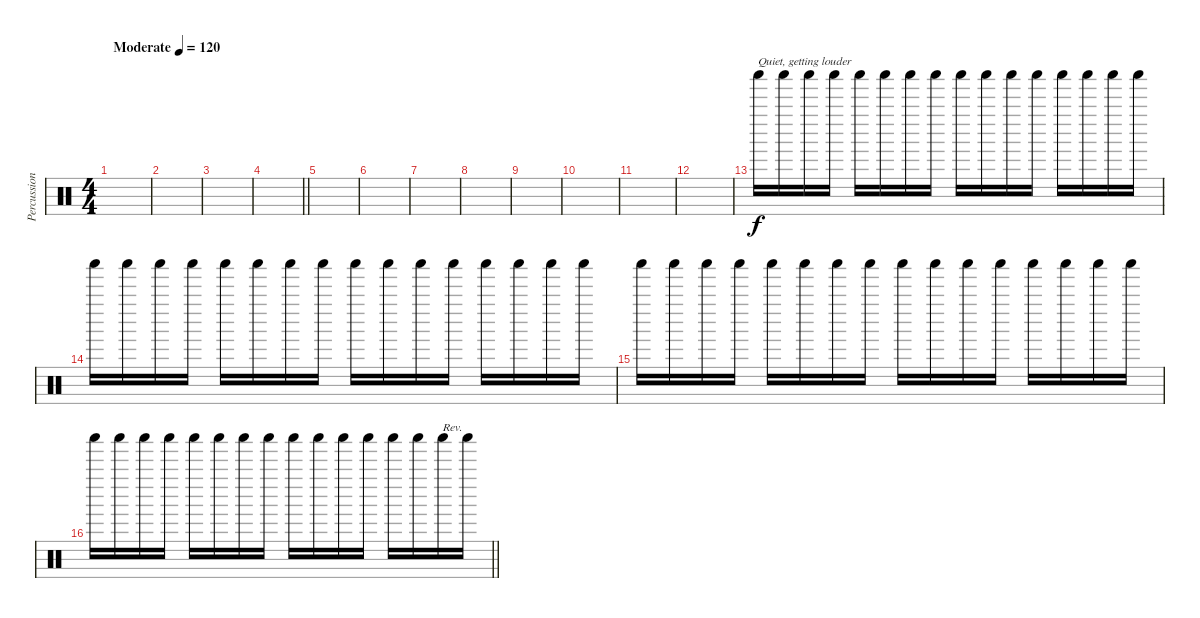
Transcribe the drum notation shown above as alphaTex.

\track ("Percussion" "Percussion") {instrument percussion}
\staff {score}
\articulation defaults
\ts (4 4)
\tempo (120 "Moderate")
\clef neutral
\ks c
|
|
|
\barLineRight lightlight
|
|
|
|
|
|
|
|
|
"Shaker (hit)".16{txt "Quiet, getting louder"} "Shaker (hit)".16 "Shaker (hit)".16 "Shaker (hit)".16 "Shaker (hit)".16 "Shaker (hit)".16 "Shaker (hit)".16 "Shaker (hit)".16 "Shaker (hit)".16 "Shaker (hit)".16 "Shaker (hit)".16 "Shaker (hit)".16 "Shaker (hit)".16 "Shaker (hit)".16 "Shaker (hit)".16 "Shaker (hit)".16 |
"Shaker (hit)".16 "Shaker (hit)".16 "Shaker (hit)".16 "Shaker (hit)".16 "Shaker (hit)".16 "Shaker (hit)".16 "Shaker (hit)".16 "Shaker (hit)".16 "Shaker (hit)".16 "Shaker (hit)".16 "Shaker (hit)".16 "Shaker (hit)".16 "Shaker (hit)".16 "Shaker (hit)".16 "Shaker (hit)".16 "Shaker (hit)".16 |
"Shaker (hit)".16 "Shaker (hit)".16 "Shaker (hit)".16 "Shaker (hit)".16 "Shaker (hit)".16 "Shaker (hit)".16 "Shaker (hit)".16 "Shaker (hit)".16 "Shaker (hit)".16 "Shaker (hit)".16 "Shaker (hit)".16 "Shaker (hit)".16 "Shaker (hit)".16 "Shaker (hit)".16 "Shaker (hit)".16 "Shaker (hit)".16 |
\barLineRight lightlight "Shaker (hit)".16 "Shaker (hit)".16 "Shaker (hit)".16 "Shaker (hit)".16 "Shaker (hit)".16 "Shaker (hit)".16 "Shaker (hit)".16 "Shaker (hit)".16 "Shaker (hit)".16 "Shaker (hit)".16 "Shaker (hit)".16 "Shaker (hit)".16 "Shaker (hit)".16 "Shaker (hit)".16 "Shaker (hit)".16{txt "Rev."} "Shaker (hit)".16
